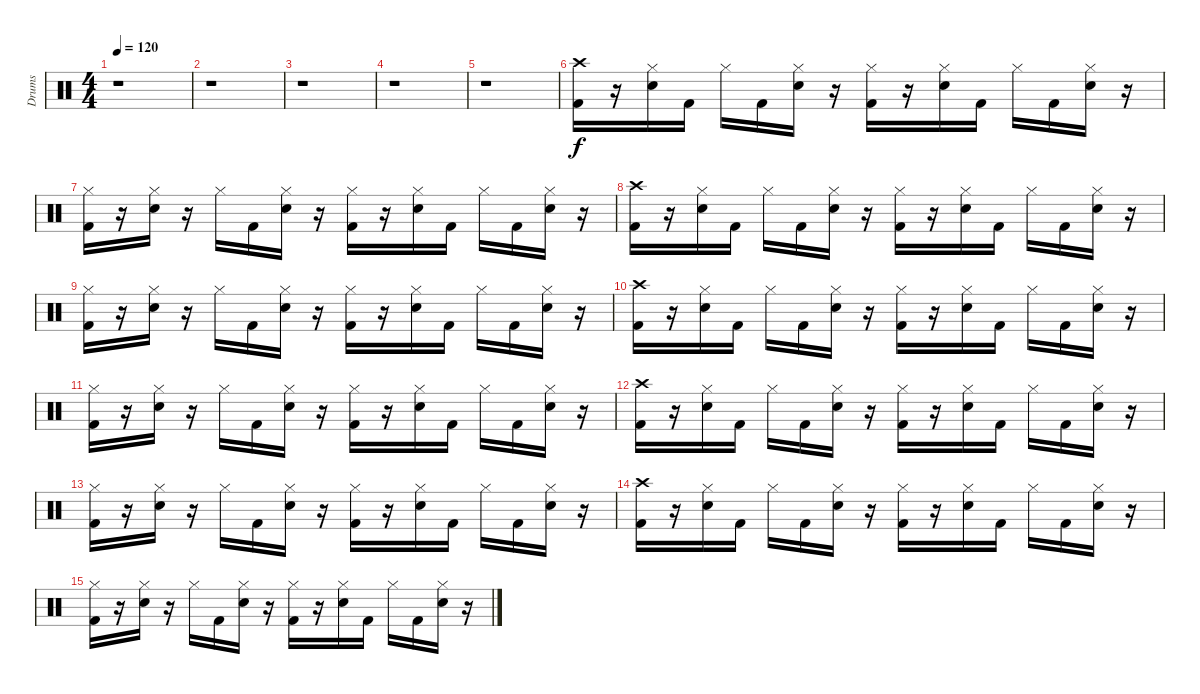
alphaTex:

\track ("Drums" "Drums") {instrument percussion}
\staff {score}
\articulation defaults
\ts (4 4)
\tempo 120
\clef neutral
\ks c
r.1{dy f} |
r.1 |
r.1 |
r.1 |
r.1 |
("Crash high (hit)" "Kick (hit) 2").16 r.16 ("Hi-Hat (closed)" "Snare (hit) 2").16 "Kick (hit) 2".16 "Hi-Hat (closed)".16 "Kick (hit) 2".16 ("Hi-Hat (closed)" "Snare (hit) 2").16 r.16 ("Hi-Hat (closed)" "Kick (hit) 2").16 r.16 ("Hi-Hat (closed)" "Snare (hit) 2").16 "Kick (hit) 2".16 "Hi-Hat (closed)".16 "Kick (hit) 2".16 ("Hi-Hat (closed)" "Snare (hit) 2").16 r.16 |
("Hi-Hat (closed)" "Kick (hit) 2").16 r.16 ("Hi-Hat (closed)" "Snare (hit) 2").16 r.16 "Hi-Hat (closed)".16 "Kick (hit) 2".16 ("Hi-Hat (closed)" "Snare (hit) 2").16 r.16 ("Hi-Hat (closed)" "Kick (hit) 2").16 r.16 ("Hi-Hat (closed)" "Snare (hit) 2").16 "Kick (hit) 2".16 "Hi-Hat (closed)".16 "Kick (hit) 2".16 ("Hi-Hat (closed)" "Snare (hit) 2").16 r.16 |
("Crash high (hit)" "Kick (hit) 2").16 r.16 ("Hi-Hat (closed)" "Snare (hit) 2").16 "Kick (hit) 2".16 "Hi-Hat (closed)".16 "Kick (hit) 2".16 ("Hi-Hat (closed)" "Snare (hit) 2").16 r.16 ("Hi-Hat (closed)" "Kick (hit) 2").16 r.16 ("Hi-Hat (closed)" "Snare (hit) 2").16 "Kick (hit) 2".16 "Hi-Hat (closed)".16 "Kick (hit) 2".16 ("Hi-Hat (closed)" "Snare (hit) 2").16 r.16 |
("Hi-Hat (closed)" "Kick (hit) 2").16 r.16 ("Hi-Hat (closed)" "Snare (hit) 2").16 r.16 "Hi-Hat (closed)".16 "Kick (hit) 2".16 ("Hi-Hat (closed)" "Snare (hit) 2").16 r.16 ("Hi-Hat (closed)" "Kick (hit) 2").16 r.16 ("Hi-Hat (closed)" "Snare (hit) 2").16 "Kick (hit) 2".16 "Hi-Hat (closed)".16 "Kick (hit) 2".16 ("Hi-Hat (closed)" "Snare (hit) 2").16 r.16 |
("Crash high (hit)" "Kick (hit) 2").16 r.16 ("Hi-Hat (closed)" "Snare (hit) 2").16 "Kick (hit) 2".16 "Hi-Hat (closed)".16 "Kick (hit) 2".16 ("Hi-Hat (closed)" "Snare (hit) 2").16 r.16 ("Hi-Hat (closed)" "Kick (hit) 2").16 r.16 ("Hi-Hat (closed)" "Snare (hit) 2").16 "Kick (hit) 2".16 "Hi-Hat (closed)".16 "Kick (hit) 2".16 ("Hi-Hat (closed)" "Snare (hit) 2").16 r.16 |
("Hi-Hat (closed)" "Kick (hit) 2").16 r.16 ("Hi-Hat (closed)" "Snare (hit) 2").16 r.16 "Hi-Hat (closed)".16 "Kick (hit) 2".16 ("Hi-Hat (closed)" "Snare (hit) 2").16 r.16 ("Hi-Hat (closed)" "Kick (hit) 2").16 r.16 ("Hi-Hat (closed)" "Snare (hit) 2").16 "Kick (hit) 2".16 "Hi-Hat (closed)".16 "Kick (hit) 2".16 ("Hi-Hat (closed)" "Snare (hit) 2").16 r.16 |
("Crash high (hit)" "Kick (hit) 2").16 r.16 ("Hi-Hat (closed)" "Snare (hit) 2").16 "Kick (hit) 2".16 "Hi-Hat (closed)".16 "Kick (hit) 2".16 ("Hi-Hat (closed)" "Snare (hit) 2").16 r.16 ("Hi-Hat (closed)" "Kick (hit) 2").16 r.16 ("Hi-Hat (closed)" "Snare (hit) 2").16 "Kick (hit) 2".16 "Hi-Hat (closed)".16 "Kick (hit) 2".16 ("Hi-Hat (closed)" "Snare (hit) 2").16 r.16 |
("Hi-Hat (closed)" "Kick (hit) 2").16 r.16 ("Hi-Hat (closed)" "Snare (hit) 2").16 r.16 "Hi-Hat (closed)".16 "Kick (hit) 2".16 ("Hi-Hat (closed)" "Snare (hit) 2").16 r.16 ("Hi-Hat (closed)" "Kick (hit) 2").16 r.16 ("Hi-Hat (closed)" "Snare (hit) 2").16 "Kick (hit) 2".16 "Hi-Hat (closed)".16 "Kick (hit) 2".16 ("Hi-Hat (closed)" "Snare (hit) 2").16 r.16 |
("Crash high (hit)" "Kick (hit) 2").16{volume 0} r.16 ("Hi-Hat (closed)" "Snare (hit) 2").16 "Kick (hit) 2".16 "Hi-Hat (closed)".16 "Kick (hit) 2".16 ("Hi-Hat (closed)" "Snare (hit) 2").16 r.16 ("Hi-Hat (closed)" "Kick (hit) 2").16 r.16 ("Hi-Hat (closed)" "Snare (hit) 2").16 "Kick (hit) 2".16 "Hi-Hat (closed)".16 "Kick (hit) 2".16 ("Hi-Hat (closed)" "Snare (hit) 2").16 r.16 |
("Hi-Hat (closed)" "Kick (hit) 2").16 r.16 ("Hi-Hat (closed)" "Snare (hit) 2").16 r.16 "Hi-Hat (closed)".16 "Kick (hit) 2".16 ("Hi-Hat (closed)" "Snare (hit) 2").16 r.16 ("Hi-Hat (closed)" "Kick (hit) 2").16 r.16 ("Hi-Hat (closed)" "Snare (hit) 2").16 "Kick (hit) 2".16 "Hi-Hat (closed)".16 "Kick (hit) 2".16 ("Hi-Hat (closed)" "Snare (hit) 2").16 r.16
